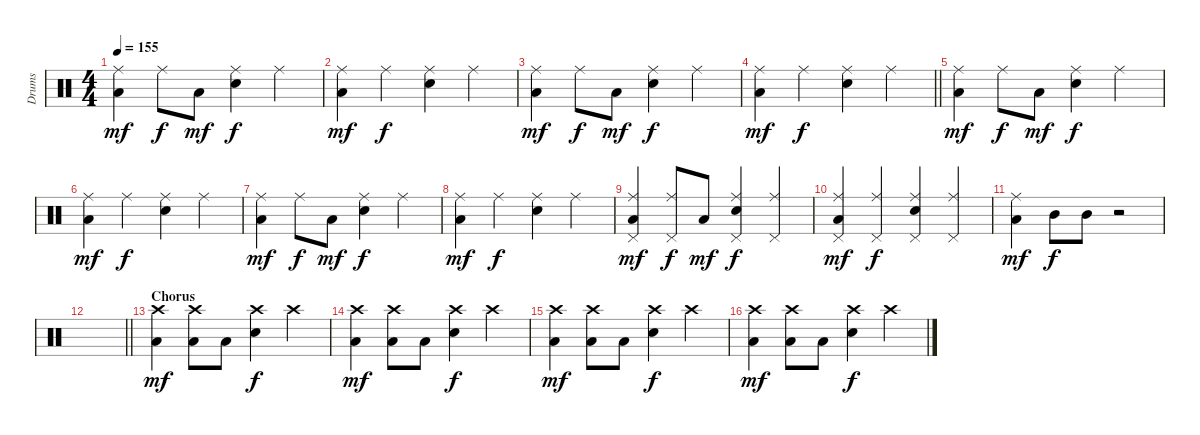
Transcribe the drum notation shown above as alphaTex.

\track ("Drums" "Drums") {instrument percussion}
\staff {score}
\articulation defaults
\ts (4 4)
\tempo 155
\clef neutral
\ks c
("Ride (middle)" "Low Floor Tom (hit)").4{dy mf} "Ride (middle)".8{dy f} "Low Floor Tom (hit)".8{dy mf} ("Ride (middle)" "Electric Snare (hit)").4{dy f} "Ride (middle)".4 |
("Ride (middle)" "Low Floor Tom (hit)").4{dy mf} "Ride (middle)".4{dy f} ("Ride (middle)" "Electric Snare (hit)").4 "Ride (middle)".4 |
("Ride (middle)" "Low Floor Tom (hit)").4{dy mf} "Ride (middle)".8{dy f} "Low Floor Tom (hit)".8{dy mf} ("Ride (middle)" "Electric Snare (hit)").4{dy f} "Ride (middle)".4 |
\barLineRight lightlight
("Ride (middle)" "Low Floor Tom (hit)").4{dy mf} "Ride (middle)".4{dy f} ("Ride (middle)" "Electric Snare (hit)").4 "Ride (middle)".4 |
("Ride (middle)" "Low Floor Tom (hit)").4{dy mf} "Ride (middle)".8{dy f} "Low Floor Tom (hit)".8{dy mf} ("Ride (middle)" "Electric Snare (hit)").4{dy f} "Ride (middle)".4 |
("Ride (middle)" "Low Floor Tom (hit)").4{dy mf} "Ride (middle)".4{dy f} ("Ride (middle)" "Electric Snare (hit)").4 "Ride (middle)".4 |
("Ride (middle)" "Low Floor Tom (hit)").4{dy mf} "Ride (middle)".8{dy f} "Low Floor Tom (hit)".8{dy mf} ("Ride (middle)" "Electric Snare (hit)").4{dy f} "Ride (middle)".4 |
("Ride (middle)" "Low Floor Tom (hit)").4{dy mf} "Ride (middle)".4{dy f} ("Ride (middle)" "Electric Snare (hit)").4 "Ride (middle)".4 |
("Ride (middle)" "Low Floor Tom (hit)" "Pedal Hi-Hat (hit)").4{dy mf} ("Ride (middle)" "Pedal Hi-Hat (hit)").8{dy f} "Low Floor Tom (hit)".8{dy mf} ("Ride (middle)" "Electric Snare (hit)" "Pedal Hi-Hat (hit)").4{dy f} ("Ride (middle)" "Pedal Hi-Hat (hit)").4 |
("Ride (middle)" "Low Floor Tom (hit)" "Pedal Hi-Hat (hit)").4{dy mf} ("Ride (middle)" "Pedal Hi-Hat (hit)").4{dy f} ("Ride (middle)" "Electric Snare (hit)" "Pedal Hi-Hat (hit)").4 ("Ride (middle)" "Pedal Hi-Hat (hit)").4 |
("Ride (middle)" "Low Floor Tom (hit)").4{dy mf} "Mid Tom (hit)".8{dy f} "Mid Tom (hit)".8 r.2 |
\barLineRight lightlight
|
\section ("" "Chorus")
("Crash high (hit)" "Low Floor Tom (hit)").4{dy mf} ("Crash high (hit)" "Low Floor Tom (hit)").8 "Low Floor Tom (hit)".8 ("Crash high (hit)" "Electric Snare (hit)").4{dy f} "Crash high (hit)".4 |
("Crash high (hit)" "Low Floor Tom (hit)").4{dy mf} ("Crash high (hit)" "Low Floor Tom (hit)").8 "Low Floor Tom (hit)".8 ("Crash high (hit)" "Electric Snare (hit)").4{dy f} "Crash high (hit)".4 |
("Crash high (hit)" "Low Floor Tom (hit)").4{dy mf} ("Crash high (hit)" "Low Floor Tom (hit)").8 "Low Floor Tom (hit)".8 ("Crash high (hit)" "Electric Snare (hit)").4{dy f} "Crash high (hit)".4 |
("Crash high (hit)" "Low Floor Tom (hit)").4{dy mf} ("Crash high (hit)" "Low Floor Tom (hit)").8 "Low Floor Tom (hit)".8 ("Crash high (hit)" "Electric Snare (hit)").4{dy f} "Crash high (hit)".4
